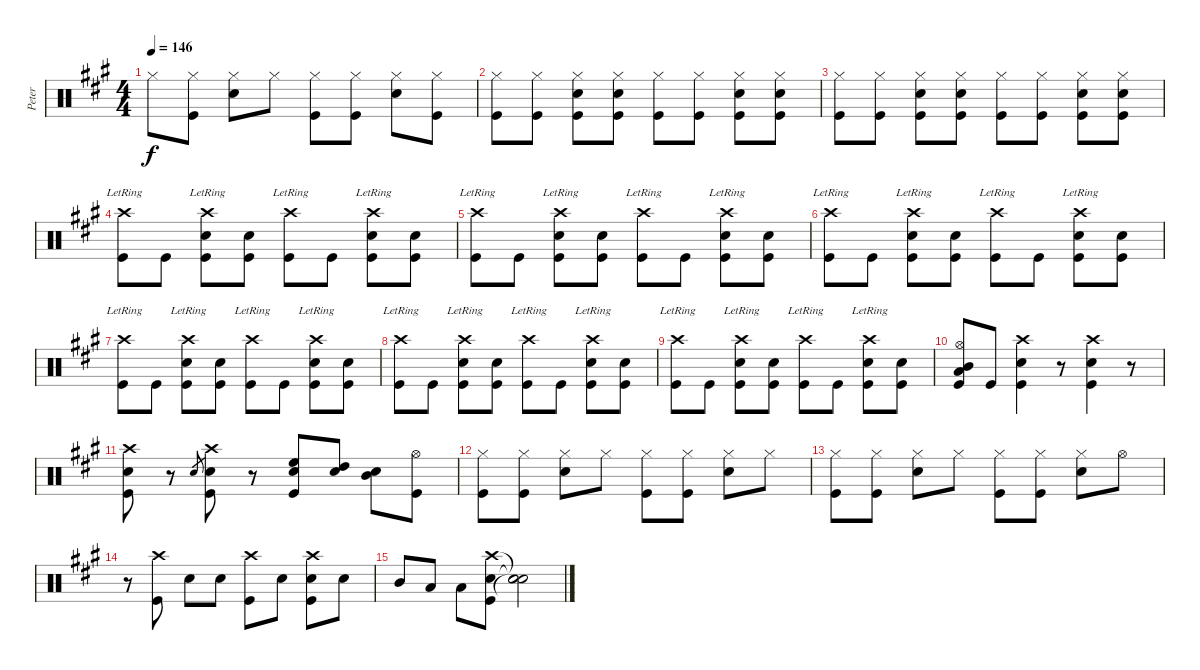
\track ("Peter" "Peter") {instrument percussion}
\staff {score}
\articulation defaults
\ts (4 4)
\tempo 146
\clef neutral
\ks a "Hi-Hat (closed)".8{dy f}
("Hi-Hat (closed)" "Kick (hit)").8 ("Hi-Hat (closed)" "Snare (hit) 2").8 "Hi-Hat (closed)".8 ("Hi-Hat (closed)" "Kick (hit)").8 ("Hi-Hat (closed)" "Kick (hit)").8 ("Hi-Hat (closed)" "Snare (hit) 2").8 ("Hi-Hat (closed)" "Kick (hit)").8 |
("Hi-Hat (closed)" "Kick (hit)").8 ("Hi-Hat (closed)" "Kick (hit)").8 ("Hi-Hat (closed)" "Snare (hit) 2" "Kick (hit)").8 ("Hi-Hat (closed)" "Snare (hit) 2" "Kick (hit)").8 ("Hi-Hat (closed)" "Kick (hit)").8 ("Hi-Hat (closed)" "Kick (hit)").8 ("Hi-Hat (closed)" "Snare (hit) 2" "Kick (hit)").8 ("Hi-Hat (closed)" "Snare (hit) 2" "Kick (hit)").8 |
("Hi-Hat (closed)" "Kick (hit)").8 ("Hi-Hat (closed)" "Kick (hit)").8 ("Hi-Hat (closed)" "Snare (hit) 2" "Kick (hit)").8 ("Hi-Hat (closed)" "Snare (hit) 2" "Kick (hit)").8 ("Hi-Hat (closed)" "Kick (hit)").8 ("Hi-Hat (closed)" "Kick (hit)").8 ("Hi-Hat (closed)" "Snare (hit) 2" "Kick (hit)").8 ("Hi-Hat (closed)" "Snare (hit) 2" "Kick (hit)").8 |
("Crash high (hit)"{lr} "Kick (hit)").8 "Kick (hit)".8 ("Crash high (hit)"{lr} "Snare (hit) 2" "Kick (hit)").8 ("Snare (hit) 2" "Kick (hit)").8 ("Crash high (hit)"{lr} "Kick (hit)").8 "Kick (hit)".8 ("Crash high (hit)"{lr} "Snare (hit) 2" "Kick (hit)").8 ("Snare (hit) 2" "Kick (hit)").8 |
("Crash high (hit)"{lr} "Kick (hit)").8 "Kick (hit)".8 ("Crash high (hit)"{lr} "Snare (hit) 2" "Kick (hit)").8 ("Snare (hit) 2" "Kick (hit)").8 ("Crash high (hit)"{lr} "Kick (hit)").8 "Kick (hit)".8 ("Crash high (hit)"{lr} "Snare (hit) 2" "Kick (hit)").8 ("Snare (hit) 2" "Kick (hit)").8 |
("Crash high (hit)"{lr} "Kick (hit)").8 "Kick (hit)".8 ("Crash high (hit)"{lr} "Snare (hit) 2" "Kick (hit)").8 ("Snare (hit) 2" "Kick (hit)").8 ("Crash high (hit)"{lr} "Kick (hit)").8 "Kick (hit)".8 ("Crash high (hit)"{lr} "Snare (hit) 2" "Kick (hit)").8 ("Snare (hit) 2" "Kick (hit)").8 |
("Crash high (hit)"{lr} "Kick (hit)").8 "Kick (hit)".8 ("Crash high (hit)"{lr} "Snare (hit) 2" "Kick (hit)").8 ("Snare (hit) 2" "Kick (hit)").8 ("Crash high (hit)"{lr} "Kick (hit)").8 "Kick (hit)".8 ("Crash high (hit)"{lr} "Snare (hit) 2" "Kick (hit)").8 ("Snare (hit) 2" "Kick (hit)").8 |
("Crash high (hit)"{lr} "Kick (hit)").8 "Kick (hit)".8 ("Crash high (hit)"{lr} "Snare (hit) 2" "Kick (hit)").8 ("Snare (hit) 2" "Kick (hit)").8 ("Crash high (hit)"{lr} "Kick (hit)").8 "Kick (hit)".8 ("Crash high (hit)"{lr} "Snare (hit) 2" "Kick (hit)").8 ("Snare (hit) 2" "Kick (hit)").8 |
("Crash high (hit)"{lr} "Kick (hit)").8 "Kick (hit)".8 ("Crash high (hit)"{lr} "Snare (hit) 2" "Kick (hit)").8 ("Snare (hit) 2" "Kick (hit)").8 ("Crash high (hit)"{lr} "Kick (hit)").8 "Kick (hit)".8 ("Crash high (hit)"{lr} "Snare (hit) 2" "Kick (hit)").8 ("Snare (hit) 2" "Kick (hit)").8 |
("Hi-Hat (open)" "Mid Tom (hit)" "Low Floor Tom (hit)" "Kick (hit)").8 "Kick (hit)".8 ("Crash high (hit)" "Snare (hit) 2" "Kick (hit)").4 r.8 ("Crash high (hit)" "Snare (hit) 2" "Kick (hit)").4 r.8 |
("Crash high (hit)" "Snare (hit) 2" "Kick (hit)").8 r.8 "Snare (hit) 2".8{gr} ("Crash high (hit)" "Snare (hit) 2" "Kick (hit)").8 r.8 ("High Floor Tom (hit)" "Snare (hit) 2" "Kick (hit)").8 ("High Tom (hit)" "Snare (hit) 2").8 ("Mid Tom (hit)" "Snare (hit) 2").8 ("Hi-Hat (open)" "Kick (hit)").8 |
("Hi-Hat (closed)" "Kick (hit)").8 ("Hi-Hat (closed)" "Kick (hit)").8 ("Hi-Hat (closed)" "Snare (hit) 2").8 "Hi-Hat (closed)".8 ("Hi-Hat (closed)" "Kick (hit)").8 ("Hi-Hat (closed)" "Kick (hit)").8 ("Hi-Hat (closed)" "Snare (hit) 2").8 "Hi-Hat (closed)".8 |
("Hi-Hat (closed)" "Kick (hit)").8 ("Hi-Hat (closed)" "Kick (hit)").8 ("Hi-Hat (closed)" "Snare (hit) 2").8 "Hi-Hat (closed)".8 ("Hi-Hat (closed)" "Kick (hit)").8 ("Hi-Hat (closed)" "Kick (hit)").8 ("Hi-Hat (closed)" "Snare (hit) 2").8 "Hi-Hat (open)".8 |
r.8 ("Crash high (hit)" "Kick (hit)").8 "Snare (hit) 2".8 "Snare (hit) 2".8 ("Crash high (hit)" "Kick (hit)").8 "Snare (hit) 2".8 ("Crash high (hit)" "Snare (hit) 2" "Kick (hit)").8 "Snare (hit) 2".8 |
"Mid Tom (hit)".8 "Low Tom (hit)".8 "Low Floor Tom (hit)".8 ("Crash high (hit)" "Snare (hit) 2" "Kick (hit)").8 ("Snare (hit)"{t} "Snare (hit)"{t} "Snare (hit)"{t}).2
